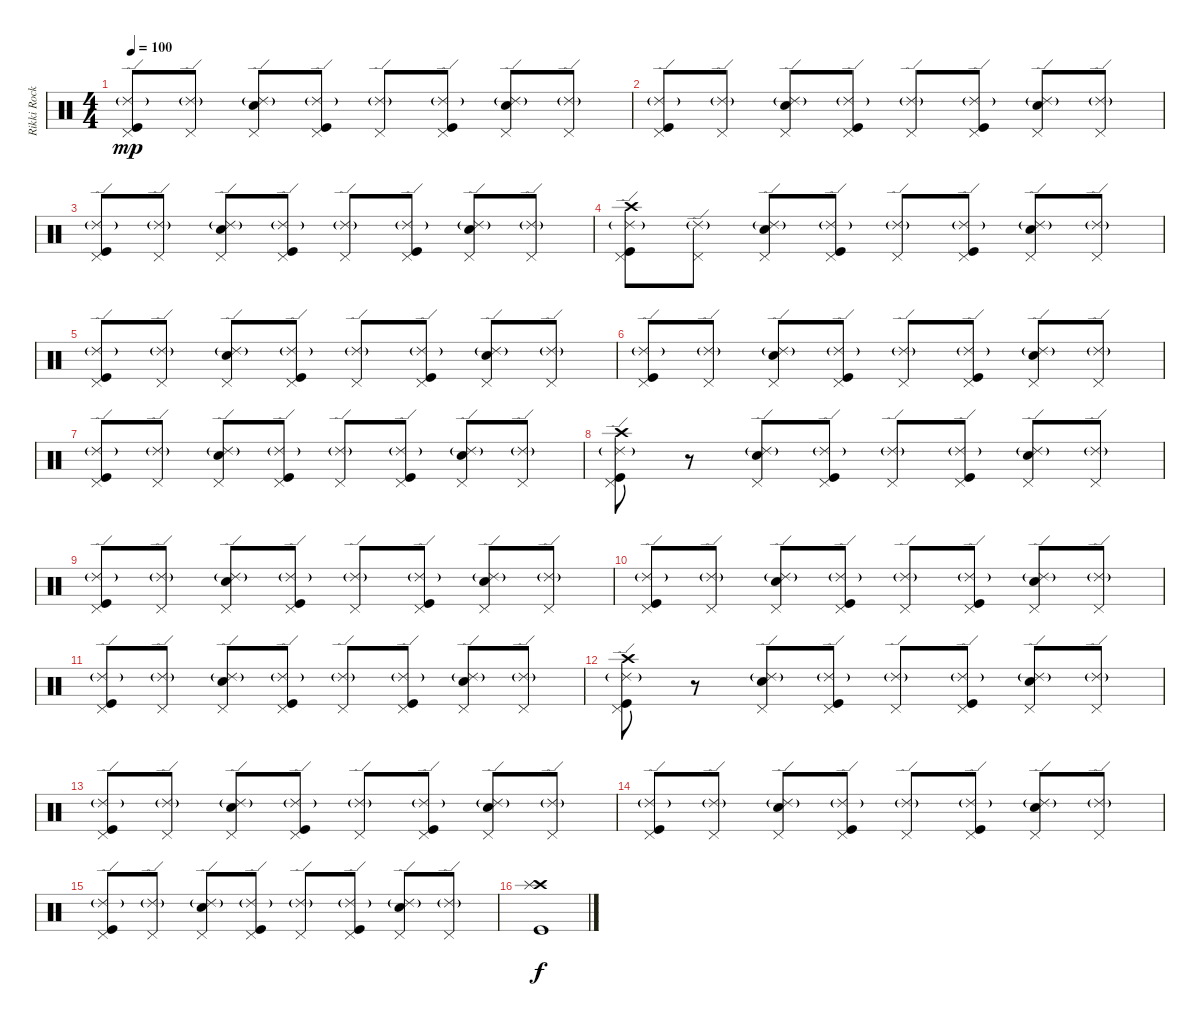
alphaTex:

\track ("Rikki Rockett Drums" "Rikki Rock") {instrument percussion}
\staff {score}
\articulation defaults
\ts (4 4)
\tempo 100
\clef neutral
\ks c
("Ride (edge) 2"{g} "Pedal Hi-Hat (hit)" "Kick (hit)").8{dy mp} ("Ride (edge) 2"{g} "Pedal Hi-Hat (hit)").8 ("Ride (edge) 2"{g} "Pedal Hi-Hat (hit)" "Snare (hit) 2").8 ("Ride (edge) 2"{g} "Pedal Hi-Hat (hit)" "Kick (hit)").8 ("Ride (edge) 2"{g} "Pedal Hi-Hat (hit)").8 ("Ride (edge) 2"{g} "Pedal Hi-Hat (hit)" "Kick (hit)").8 ("Ride (edge) 2"{g} "Pedal Hi-Hat (hit)" "Snare (hit) 2").8 ("Ride (edge) 2"{g} "Pedal Hi-Hat (hit)").8 |
("Ride (edge) 2"{g} "Pedal Hi-Hat (hit)" "Kick (hit)").8 ("Ride (edge) 2"{g} "Pedal Hi-Hat (hit)").8 ("Ride (edge) 2"{g} "Pedal Hi-Hat (hit)" "Snare (hit) 2").8 ("Ride (edge) 2"{g} "Pedal Hi-Hat (hit)" "Kick (hit)").8 ("Ride (edge) 2"{g} "Pedal Hi-Hat (hit)").8 ("Ride (edge) 2"{g} "Pedal Hi-Hat (hit)" "Kick (hit)").8 ("Ride (edge) 2"{g} "Pedal Hi-Hat (hit)" "Snare (hit) 2").8 ("Ride (edge) 2"{g} "Pedal Hi-Hat (hit)").8 |
("Ride (edge) 2"{g} "Pedal Hi-Hat (hit)" "Kick (hit)").8 ("Ride (edge) 2"{g} "Pedal Hi-Hat (hit)").8 ("Ride (edge) 2"{g} "Pedal Hi-Hat (hit)" "Snare (hit) 2").8 ("Ride (edge) 2"{g} "Pedal Hi-Hat (hit)" "Kick (hit)").8 ("Ride (edge) 2"{g} "Pedal Hi-Hat (hit)").8 ("Ride (edge) 2"{g} "Pedal Hi-Hat (hit)" "Kick (hit)").8 ("Ride (edge) 2"{g} "Pedal Hi-Hat (hit)" "Snare (hit) 2").8 ("Ride (edge) 2"{g} "Pedal Hi-Hat (hit)").8 |
("Ride (edge) 2"{g} "Pedal Hi-Hat (hit)" "Crash high (hit)" "Kick (hit)").8 ("Ride (edge) 2"{g} "Pedal Hi-Hat (hit)").8 ("Ride (edge) 2"{g} "Pedal Hi-Hat (hit)" "Snare (hit) 2").8 ("Ride (edge) 2"{g} "Pedal Hi-Hat (hit)" "Kick (hit)").8 ("Ride (edge) 2"{g} "Pedal Hi-Hat (hit)").8 ("Ride (edge) 2"{g} "Pedal Hi-Hat (hit)" "Kick (hit)").8 ("Ride (edge) 2"{g} "Pedal Hi-Hat (hit)" "Snare (hit) 2").8 ("Ride (edge) 2"{g} "Pedal Hi-Hat (hit)").8 |
("Ride (edge) 2"{g} "Pedal Hi-Hat (hit)" "Kick (hit)").8 ("Ride (edge) 2"{g} "Pedal Hi-Hat (hit)").8 ("Ride (edge) 2"{g} "Pedal Hi-Hat (hit)" "Snare (hit) 2").8 ("Ride (edge) 2"{g} "Pedal Hi-Hat (hit)" "Kick (hit)").8 ("Ride (edge) 2"{g} "Pedal Hi-Hat (hit)").8 ("Ride (edge) 2"{g} "Pedal Hi-Hat (hit)" "Kick (hit)").8 ("Ride (edge) 2"{g} "Pedal Hi-Hat (hit)" "Snare (hit) 2").8 ("Ride (edge) 2"{g} "Pedal Hi-Hat (hit)").8 |
("Ride (edge) 2"{g} "Pedal Hi-Hat (hit)" "Kick (hit)").8 ("Ride (edge) 2"{g} "Pedal Hi-Hat (hit)").8 ("Ride (edge) 2"{g} "Pedal Hi-Hat (hit)" "Snare (hit) 2").8 ("Ride (edge) 2"{g} "Pedal Hi-Hat (hit)" "Kick (hit)").8 ("Ride (edge) 2"{g} "Pedal Hi-Hat (hit)").8 ("Ride (edge) 2"{g} "Pedal Hi-Hat (hit)" "Kick (hit)").8 ("Ride (edge) 2"{g} "Pedal Hi-Hat (hit)" "Snare (hit) 2").8 ("Ride (edge) 2"{g} "Pedal Hi-Hat (hit)").8 |
("Ride (edge) 2"{g} "Pedal Hi-Hat (hit)" "Kick (hit)").8 ("Ride (edge) 2"{g} "Pedal Hi-Hat (hit)").8 ("Ride (edge) 2"{g} "Pedal Hi-Hat (hit)" "Snare (hit) 2").8 ("Ride (edge) 2"{g} "Pedal Hi-Hat (hit)" "Kick (hit)").8 ("Ride (edge) 2"{g} "Pedal Hi-Hat (hit)").8 ("Ride (edge) 2"{g} "Pedal Hi-Hat (hit)" "Kick (hit)").8 ("Ride (edge) 2"{g} "Pedal Hi-Hat (hit)" "Snare (hit) 2").8 ("Ride (edge) 2"{g} "Pedal Hi-Hat (hit)").8 |
("Ride (edge) 2"{g} "Pedal Hi-Hat (hit)" "Crash high (hit)" "Kick (hit)").8 r.8 ("Ride (edge) 2"{g} "Pedal Hi-Hat (hit)" "Snare (hit) 2").8 ("Ride (edge) 2"{g} "Pedal Hi-Hat (hit)" "Kick (hit)").8 ("Ride (edge) 2"{g} "Pedal Hi-Hat (hit)").8 ("Ride (edge) 2"{g} "Pedal Hi-Hat (hit)" "Kick (hit)").8 ("Ride (edge) 2"{g} "Pedal Hi-Hat (hit)" "Snare (hit) 2").8 ("Ride (edge) 2"{g} "Pedal Hi-Hat (hit)").8 |
("Ride (edge) 2"{g} "Pedal Hi-Hat (hit)" "Kick (hit)").8 ("Ride (edge) 2"{g} "Pedal Hi-Hat (hit)").8 ("Ride (edge) 2"{g} "Pedal Hi-Hat (hit)" "Snare (hit) 2").8 ("Ride (edge) 2"{g} "Pedal Hi-Hat (hit)" "Kick (hit)").8 ("Ride (edge) 2"{g} "Pedal Hi-Hat (hit)").8 ("Ride (edge) 2"{g} "Pedal Hi-Hat (hit)" "Kick (hit)").8 ("Ride (edge) 2"{g} "Pedal Hi-Hat (hit)" "Snare (hit) 2").8 ("Ride (edge) 2"{g} "Pedal Hi-Hat (hit)").8 |
("Ride (edge) 2"{g} "Pedal Hi-Hat (hit)" "Kick (hit)").8 ("Ride (edge) 2"{g} "Pedal Hi-Hat (hit)").8 ("Ride (edge) 2"{g} "Pedal Hi-Hat (hit)" "Snare (hit) 2").8 ("Ride (edge) 2"{g} "Pedal Hi-Hat (hit)" "Kick (hit)").8 ("Ride (edge) 2"{g} "Pedal Hi-Hat (hit)").8 ("Ride (edge) 2"{g} "Pedal Hi-Hat (hit)" "Kick (hit)").8 ("Ride (edge) 2"{g} "Pedal Hi-Hat (hit)" "Snare (hit) 2").8 ("Ride (edge) 2"{g} "Pedal Hi-Hat (hit)").8 |
("Ride (edge) 2"{g} "Pedal Hi-Hat (hit)" "Kick (hit)").8 ("Ride (edge) 2"{g} "Pedal Hi-Hat (hit)").8 ("Ride (edge) 2"{g} "Pedal Hi-Hat (hit)" "Snare (hit) 2").8 ("Ride (edge) 2"{g} "Pedal Hi-Hat (hit)" "Kick (hit)").8 ("Ride (edge) 2"{g} "Pedal Hi-Hat (hit)").8 ("Ride (edge) 2"{g} "Pedal Hi-Hat (hit)" "Kick (hit)").8 ("Ride (edge) 2"{g} "Pedal Hi-Hat (hit)" "Snare (hit) 2").8 ("Ride (edge) 2"{g} "Pedal Hi-Hat (hit)").8 |
("Ride (edge) 2"{g} "Pedal Hi-Hat (hit)" "Crash high (hit)" "Kick (hit)").8 r.8 ("Ride (edge) 2"{g} "Pedal Hi-Hat (hit)" "Snare (hit) 2").8 ("Ride (edge) 2"{g} "Pedal Hi-Hat (hit)" "Kick (hit)").8 ("Ride (edge) 2"{g} "Pedal Hi-Hat (hit)").8 ("Ride (edge) 2"{g} "Pedal Hi-Hat (hit)" "Kick (hit)").8 ("Ride (edge) 2"{g} "Pedal Hi-Hat (hit)" "Snare (hit) 2").8 ("Ride (edge) 2"{g} "Pedal Hi-Hat (hit)").8 |
("Ride (edge) 2"{g} "Pedal Hi-Hat (hit)" "Kick (hit)").8 ("Ride (edge) 2"{g} "Pedal Hi-Hat (hit)").8 ("Ride (edge) 2"{g} "Pedal Hi-Hat (hit)" "Snare (hit) 2").8 ("Ride (edge) 2"{g} "Pedal Hi-Hat (hit)" "Kick (hit)").8 ("Ride (edge) 2"{g} "Pedal Hi-Hat (hit)").8 ("Ride (edge) 2"{g} "Pedal Hi-Hat (hit)" "Kick (hit)").8 ("Ride (edge) 2"{g} "Pedal Hi-Hat (hit)" "Snare (hit) 2").8 ("Ride (edge) 2"{g} "Pedal Hi-Hat (hit)").8 |
("Ride (edge) 2"{g} "Pedal Hi-Hat (hit)" "Kick (hit)").8 ("Ride (edge) 2"{g} "Pedal Hi-Hat (hit)").8 ("Ride (edge) 2"{g} "Pedal Hi-Hat (hit)" "Snare (hit) 2").8 ("Ride (edge) 2"{g} "Pedal Hi-Hat (hit)" "Kick (hit)").8 ("Ride (edge) 2"{g} "Pedal Hi-Hat (hit)").8 ("Ride (edge) 2"{g} "Pedal Hi-Hat (hit)" "Kick (hit)").8 ("Ride (edge) 2"{g} "Pedal Hi-Hat (hit)" "Snare (hit) 2").8 ("Ride (edge) 2"{g} "Pedal Hi-Hat (hit)").8 |
("Ride (edge) 2"{g} "Pedal Hi-Hat (hit)" "Kick (hit)").8 ("Ride (edge) 2"{g} "Pedal Hi-Hat (hit)").8 ("Ride (edge) 2"{g} "Pedal Hi-Hat (hit)" "Snare (hit) 2").8 ("Ride (edge) 2"{g} "Pedal Hi-Hat (hit)" "Kick (hit)").8 ("Ride (edge) 2"{g} "Pedal Hi-Hat (hit)").8 ("Ride (edge) 2"{g} "Pedal Hi-Hat (hit)" "Kick (hit)").8 ("Ride (edge) 2"{g} "Pedal Hi-Hat (hit)" "Snare (hit) 2").8 ("Ride (edge) 2"{g} "Pedal Hi-Hat (hit)").8 |
("Crash high (hit)" "Splash (hit)" "Kick (hit)").1{dy f}
